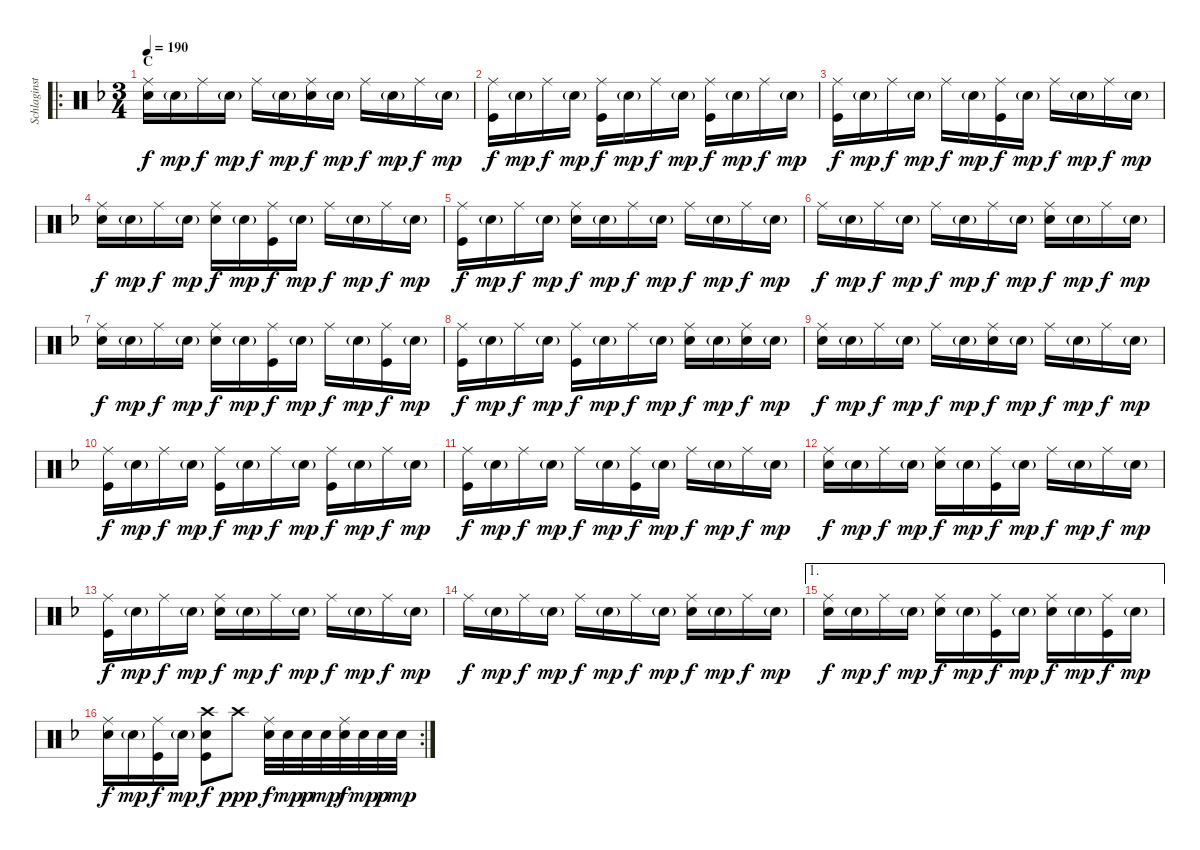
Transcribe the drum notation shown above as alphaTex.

\track ("Schlaginstrumente - Auswahl" "Schlaginst") {instrument percussion}
\staff {score}
\articulation defaults
\ro
\ts (3 4)
\section ("" "C")
\tempo 190
\clef neutral
\ks dminor
("Ride (middle)" "Electric Snare (hit)").16{dy f} "Electric Snare (hit)"{g}.16{dy mp} "Ride (middle)".16{dy f} "Electric Snare (hit)"{g}.16{dy mp} "Ride (middle)".16{dy f} "Electric Snare (hit)"{g}.16{dy mp} ("Ride (middle)" "Electric Snare (hit)").16{dy f} "Electric Snare (hit)"{g}.16{dy mp} "Ride (middle)".16{dy f} "Electric Snare (hit)"{g}.16{dy mp} "Ride (middle)".16{dy f} "Electric Snare (hit)"{g}.16{dy mp} |
("Ride (middle)" "Kick (hit)").16{dy f} "Electric Snare (hit)"{g}.16{dy mp} "Ride (middle)".16{dy f} "Electric Snare (hit)"{g}.16{dy mp} ("Ride (middle)" "Kick (hit)").16{dy f} "Electric Snare (hit)"{g}.16{dy mp} "Ride (middle)".16{dy f} "Electric Snare (hit)"{g}.16{dy mp} ("Ride (middle)" "Kick (hit)").16{dy f} "Electric Snare (hit)"{g}.16{dy mp} "Ride (middle)".16{dy f} "Electric Snare (hit)"{g}.16{dy mp} |
("Ride (middle)" "Kick (hit)").16{dy f} "Electric Snare (hit)"{g}.16{dy mp} "Ride (middle)".16{dy f} "Electric Snare (hit)"{g}.16{dy mp} "Ride (middle)".16{dy f} "Electric Snare (hit)"{g}.16{dy mp} ("Ride (middle)" "Kick (hit)").16{dy f} "Electric Snare (hit)"{g}.16{dy mp} "Ride (middle)".16{dy f} "Electric Snare (hit)"{g}.16{dy mp} "Ride (middle)".16{dy f} "Electric Snare (hit)"{g}.16{dy mp} |
("Ride (middle)" "Electric Snare (hit)").16{dy f} "Electric Snare (hit)"{g}.16{dy mp} "Ride (middle)".16{dy f} "Electric Snare (hit)"{g}.16{dy mp} ("Ride (middle)" "Electric Snare (hit)").16{dy f} "Electric Snare (hit)"{g}.16{dy mp} ("Ride (middle)" "Kick (hit)").16{dy f} "Electric Snare (hit)"{g}.16{dy mp} "Ride (middle)".16{dy f} "Electric Snare (hit)"{g}.16{dy mp} "Ride (middle)".16{dy f} "Electric Snare (hit)"{g}.16{dy mp} |
("Ride (middle)" "Kick (hit)").16{dy f} "Electric Snare (hit)"{g}.16{dy mp} "Ride (middle)".16{dy f} "Electric Snare (hit)"{g}.16{dy mp} ("Ride (middle)" "Electric Snare (hit)").16{dy f} "Electric Snare (hit)"{g}.16{dy mp} "Ride (middle)".16{dy f} "Electric Snare (hit)"{g}.16{dy mp} "Ride (middle)".16{dy f} "Electric Snare (hit)"{g}.16{dy mp} "Ride (middle)".16{dy f} "Electric Snare (hit)"{g}.16{dy mp} |
"Ride (middle)".16{dy f} "Electric Snare (hit)"{g}.16{dy mp} "Ride (middle)".16{dy f} "Electric Snare (hit)"{g}.16{dy mp} "Ride (middle)".16{dy f} "Electric Snare (hit)"{g}.16{dy mp} "Ride (middle)".16{dy f} "Electric Snare (hit)"{g}.16{dy mp} ("Ride (middle)" "Electric Snare (hit)").16{dy f} "Electric Snare (hit)"{g}.16{dy mp} "Ride (middle)".16{dy f} "Electric Snare (hit)"{g}.16{dy mp} |
("Ride (middle)" "Electric Snare (hit)").16{dy f} "Electric Snare (hit)"{g}.16{dy mp} "Ride (middle)".16{dy f} "Electric Snare (hit)"{g}.16{dy mp} ("Ride (middle)" "Electric Snare (hit)").16{dy f} "Electric Snare (hit)"{g}.16{dy mp} ("Ride (middle)" "Kick (hit)").16{dy f} "Electric Snare (hit)"{g}.16{dy mp} "Ride (middle)".16{dy f} "Electric Snare (hit)"{g}.16{dy mp} ("Ride (middle)" "Kick (hit)").16{dy f} "Electric Snare (hit)"{g}.16{dy mp} |
("Ride (middle)" "Kick (hit)").16{dy f} "Electric Snare (hit)"{g}.16{dy mp} "Ride (middle)".16{dy f} "Electric Snare (hit)"{g}.16{dy mp} ("Ride (middle)" "Kick (hit)").16{dy f} "Electric Snare (hit)"{g}.16{dy mp} "Ride (middle)".16{dy f} "Electric Snare (hit)"{g}.16{dy mp} ("Ride (middle)" "Electric Snare (hit)").16{dy f} "Electric Snare (hit)"{g}.16{dy mp} ("Ride (middle)" "Electric Snare (hit)").16{dy f} "Electric Snare (hit)"{g}.16{dy mp} |
("Ride (middle)" "Electric Snare (hit)").16{dy f} "Electric Snare (hit)"{g}.16{dy mp} "Ride (middle)".16{dy f} "Electric Snare (hit)"{g}.16{dy mp} "Ride (middle)".16{dy f} "Electric Snare (hit)"{g}.16{dy mp} ("Ride (middle)" "Electric Snare (hit)").16{dy f} "Electric Snare (hit)"{g}.16{dy mp} "Ride (middle)".16{dy f} "Electric Snare (hit)"{g}.16{dy mp} "Ride (middle)".16{dy f} "Electric Snare (hit)"{g}.16{dy mp} |
("Ride (middle)" "Kick (hit)").16{dy f} "Electric Snare (hit)"{g}.16{dy mp} "Ride (middle)".16{dy f} "Electric Snare (hit)"{g}.16{dy mp} ("Ride (middle)" "Kick (hit)").16{dy f} "Electric Snare (hit)"{g}.16{dy mp} "Ride (middle)".16{dy f} "Electric Snare (hit)"{g}.16{dy mp} ("Ride (middle)" "Kick (hit)").16{dy f} "Electric Snare (hit)"{g}.16{dy mp} "Ride (middle)".16{dy f} "Electric Snare (hit)"{g}.16{dy mp} |
("Ride (middle)" "Kick (hit)").16{dy f} "Electric Snare (hit)"{g}.16{dy mp} "Ride (middle)".16{dy f} "Electric Snare (hit)"{g}.16{dy mp} "Ride (middle)".16{dy f} "Electric Snare (hit)"{g}.16{dy mp} ("Ride (middle)" "Kick (hit)").16{dy f} "Electric Snare (hit)"{g}.16{dy mp} "Ride (middle)".16{dy f} "Electric Snare (hit)"{g}.16{dy mp} "Ride (middle)".16{dy f} "Electric Snare (hit)"{g}.16{dy mp} |
("Ride (middle)" "Electric Snare (hit)").16{dy f} "Electric Snare (hit)"{g}.16{dy mp} "Ride (middle)".16{dy f} "Electric Snare (hit)"{g}.16{dy mp} ("Ride (middle)" "Electric Snare (hit)").16{dy f} "Electric Snare (hit)"{g}.16{dy mp} ("Ride (middle)" "Kick (hit)").16{dy f} "Electric Snare (hit)"{g}.16{dy mp} "Ride (middle)".16{dy f} "Electric Snare (hit)"{g}.16{dy mp} "Ride (middle)".16{dy f} "Electric Snare (hit)"{g}.16{dy mp} |
("Ride (middle)" "Kick (hit)").16{dy f} "Electric Snare (hit)"{g}.16{dy mp} "Ride (middle)".16{dy f} "Electric Snare (hit)"{g}.16{dy mp} ("Ride (middle)" "Electric Snare (hit)").16{dy f} "Electric Snare (hit)"{g}.16{dy mp} "Ride (middle)".16{dy f} "Electric Snare (hit)"{g}.16{dy mp} "Ride (middle)".16{dy f} "Electric Snare (hit)"{g}.16{dy mp} "Ride (middle)".16{dy f} "Electric Snare (hit)"{g}.16{dy mp} |
"Ride (middle)".16{dy f} "Electric Snare (hit)"{g}.16{dy mp} "Ride (middle)".16{dy f} "Electric Snare (hit)"{g}.16{dy mp} "Ride (middle)".16{dy f} "Electric Snare (hit)"{g}.16{dy mp} "Ride (middle)".16{dy f} "Electric Snare (hit)"{g}.16{dy mp} ("Ride (middle)" "Electric Snare (hit)").16{dy f} "Electric Snare (hit)"{g}.16{dy mp} "Ride (middle)".16{dy f} "Electric Snare (hit)"{g}.16{dy mp} |
\ae 1
("Ride (middle)" "Electric Snare (hit)").16{dy f} "Electric Snare (hit)"{g}.16{dy mp} "Ride (middle)".16{dy f} "Electric Snare (hit)"{g}.16{dy mp} ("Ride (middle)" "Electric Snare (hit)").16{dy f} "Electric Snare (hit)"{g}.16{dy mp} ("Ride (middle)" "Kick (hit)").16{dy f} "Electric Snare (hit)"{g}.16{dy mp} ("Ride (middle)" "Electric Snare (hit)").16{dy f} "Electric Snare (hit)"{g}.16{dy mp} ("Ride (middle)" "Kick (hit)").16{dy f} "Electric Snare (hit)"{g}.16{dy mp} |
\rc 2
("Ride (middle)" "Electric Snare (hit)").16{dy f} "Electric Snare (hit)"{g}.16{dy mp} ("Ride (middle)" "Kick (hit)").16{dy f} "Electric Snare (hit)"{g}.16{dy mp} ("Crash high (hit)" "Electric Snare (hit)" "Kick (hit)").8{dy f} "Crash high (hit)".8{dy ppp} ("Ride (middle)" "Electric Snare (hit)").32{dy f} "Electric Snare (hit)".32{dy mp} "Electric Snare (hit)".32{dy p} "Electric Snare (hit)".32{dy mp} ("Ride (middle)" "Electric Snare (hit)").32{dy f} "Electric Snare (hit)".32{dy mp} "Electric Snare (hit)".32{dy p} "Electric Snare (hit)".32{dy mp}
